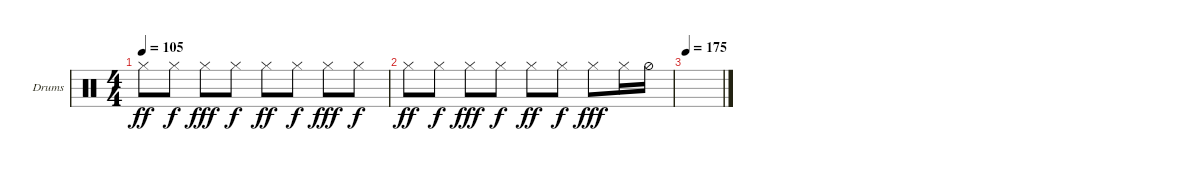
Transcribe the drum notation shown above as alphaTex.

\defaultSystemsLayout 4
\bracketExtendMode groupsimilarinstruments
\firstSystemTrackNameOrientation horizontal
\otherSystemsTrackNameOrientation horizontal
\track ("Helders" "Drums") {instrument percussion}
\staff {score}
\articulation defaults
\ts (4 4)
\tempo 105
\clef neutral
\ks c "Hi-Hat (closed)".8{dy ff} "Hi-Hat (closed)".8{dy f} "Hi-Hat (closed)".8{dy fff} "Hi-Hat (closed)".8{dy f} "Hi-Hat (closed)".8{dy ff} "Hi-Hat (closed)".8{dy f} "Hi-Hat (closed)".8{dy fff} "Hi-Hat (closed)".8{dy f}
|
"Hi-Hat (closed)".8{dy ff} "Hi-Hat (closed)".8{dy f} "Hi-Hat (closed)".8{dy fff} "Hi-Hat (closed)".8{dy f} "Hi-Hat (closed)".8{dy ff} "Hi-Hat (closed)".8{dy f} "Hi-Hat (closed)".8{dy fff} "Hi-Hat (closed)".16 "Hi-Hat (half)".16 |
\tempo 175
